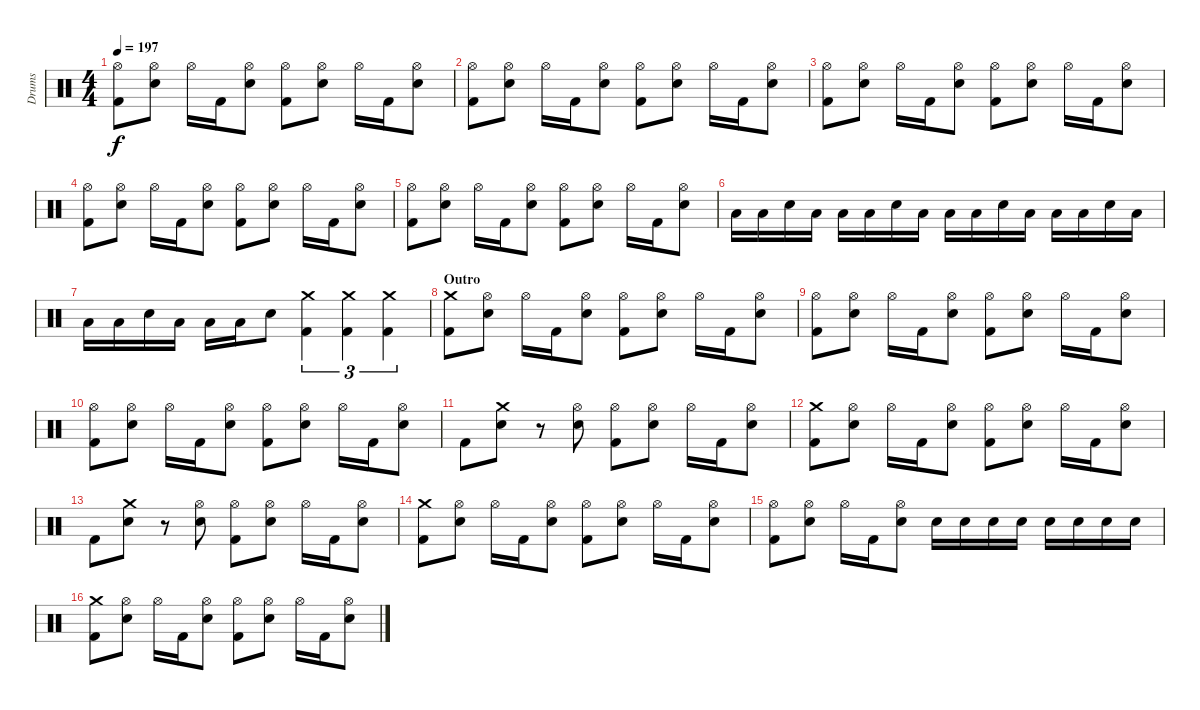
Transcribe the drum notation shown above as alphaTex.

\track ("Drums" "Drums") {instrument percussion}
\staff {score}
\articulation defaults
\ts (4 4)
\tempo 197
\clef neutral
\ks c
("Hi-Hat (open)" "Kick (hit) 2").8{dy f} ("Hi-Hat (open)" "Electric Snare (hit)").8 "Hi-Hat (open)".16 "Kick (hit) 2".16 ("Hi-Hat (open)" "Electric Snare (hit)").8 ("Hi-Hat (open)" "Kick (hit) 2").8 ("Hi-Hat (open)" "Electric Snare (hit)").8 "Hi-Hat (open)".16 "Kick (hit) 2".16 ("Hi-Hat (open)" "Electric Snare (hit)").8 |
("Hi-Hat (open)" "Kick (hit) 2").8 ("Hi-Hat (open)" "Electric Snare (hit)").8 "Hi-Hat (open)".16 "Kick (hit) 2".16 ("Hi-Hat (open)" "Electric Snare (hit)").8 ("Hi-Hat (open)" "Kick (hit) 2").8 ("Hi-Hat (open)" "Electric Snare (hit)").8 "Hi-Hat (open)".16 "Kick (hit) 2".16 ("Hi-Hat (open)" "Electric Snare (hit)").8 |
("Hi-Hat (open)" "Kick (hit) 2").8 ("Hi-Hat (open)" "Electric Snare (hit)").8 "Hi-Hat (open)".16 "Kick (hit) 2".16 ("Hi-Hat (open)" "Electric Snare (hit)").8 ("Hi-Hat (open)" "Kick (hit) 2").8 ("Hi-Hat (open)" "Electric Snare (hit)").8 "Hi-Hat (open)".16 "Kick (hit) 2".16 ("Hi-Hat (open)" "Electric Snare (hit)").8 |
("Hi-Hat (open)" "Kick (hit) 2").8 ("Hi-Hat (open)" "Electric Snare (hit)").8 "Hi-Hat (open)".16 "Kick (hit) 2".16 ("Hi-Hat (open)" "Electric Snare (hit)").8 ("Hi-Hat (open)" "Kick (hit) 2").8 ("Hi-Hat (open)" "Electric Snare (hit)").8 "Hi-Hat (open)".16 "Kick (hit) 2".16 ("Hi-Hat (open)" "Electric Snare (hit)").8 |
("Hi-Hat (open)" "Kick (hit) 2").8 ("Hi-Hat (open)" "Electric Snare (hit)").8 "Hi-Hat (open)".16 "Kick (hit) 2".16 ("Hi-Hat (open)" "Electric Snare (hit)").8 ("Hi-Hat (open)" "Kick (hit) 2").8 ("Hi-Hat (open)" "Electric Snare (hit)").8 "Hi-Hat (open)".16 "Kick (hit) 2".16 ("Hi-Hat (open)" "Electric Snare (hit)").8 |
"Low Tom (hit)".16 "Low Tom (hit)".16 "Electric Snare (hit)".16 "Low Tom (hit)".16 "Low Tom (hit)".16 "Low Tom (hit)".16 "Electric Snare (hit)".16 "Low Tom (hit)".16 "Low Tom (hit)".16 "Low Tom (hit)".16 "Electric Snare (hit)".16 "Low Tom (hit)".16 "Low Tom (hit)".16 "Low Tom (hit)".16 "Electric Snare (hit)".16 "Low Tom (hit)".16 |
"Low Tom (hit)".16 "Low Tom (hit)".16 "Electric Snare (hit)".16 "Low Tom (hit)".16 "Low Tom (hit)".16 "Low Tom (hit)".16 "Electric Snare (hit)".8 ("Crash medium (hit)" "Kick (hit) 2").4{tu (3 2)} ("Crash medium (hit)" "Kick (hit) 2").4{tu (3 2)} ("Crash medium (hit)" "Kick (hit) 2").4{tu (3 2)} |
\section ("" "Outro")
("Crash medium (hit)" "Kick (hit) 2").8 ("Hi-Hat (open)" "Electric Snare (hit)").8 "Hi-Hat (open)".16 "Kick (hit) 2".16 ("Hi-Hat (open)" "Electric Snare (hit)").8 ("Hi-Hat (open)" "Kick (hit) 2").8 ("Hi-Hat (open)" "Electric Snare (hit)").8 "Hi-Hat (open)".16 "Kick (hit) 2".16 ("Hi-Hat (open)" "Electric Snare (hit)").8 |
("Hi-Hat (open)" "Kick (hit) 2").8 ("Hi-Hat (open)" "Electric Snare (hit)").8 "Hi-Hat (open)".16 "Kick (hit) 2".16 ("Hi-Hat (open)" "Electric Snare (hit)").8 ("Hi-Hat (open)" "Kick (hit) 2").8 ("Hi-Hat (open)" "Electric Snare (hit)").8 "Hi-Hat (open)".16 "Kick (hit) 2".16 ("Hi-Hat (open)" "Electric Snare (hit)").8 |
("Hi-Hat (open)" "Kick (hit) 2").8 ("Hi-Hat (open)" "Electric Snare (hit)").8 "Hi-Hat (open)".16 "Kick (hit) 2".16 ("Hi-Hat (open)" "Electric Snare (hit)").8 ("Hi-Hat (open)" "Kick (hit) 2").8 ("Hi-Hat (open)" "Electric Snare (hit)").8 "Hi-Hat (open)".16 "Kick (hit) 2".16 ("Hi-Hat (open)" "Electric Snare (hit)").8 |
"Kick (hit) 2".8 ("Crash medium (hit)" "Electric Snare (hit)").8 r.8 ("Hi-Hat (open)" "Electric Snare (hit)").8 ("Hi-Hat (open)" "Kick (hit) 2").8 ("Hi-Hat (open)" "Electric Snare (hit)").8 "Hi-Hat (open)".16 "Kick (hit) 2".16 ("Hi-Hat (open)" "Electric Snare (hit)").8 |
("Crash medium (hit)" "Kick (hit) 2").8 ("Hi-Hat (open)" "Electric Snare (hit)").8 "Hi-Hat (open)".16 "Kick (hit) 2".16 ("Hi-Hat (open)" "Electric Snare (hit)").8 ("Hi-Hat (open)" "Kick (hit) 2").8 ("Hi-Hat (open)" "Electric Snare (hit)").8 "Hi-Hat (open)".16 "Kick (hit) 2".16 ("Hi-Hat (open)" "Electric Snare (hit)").8 |
"Kick (hit) 2".8 ("Crash medium (hit)" "Electric Snare (hit)").8 r.8 ("Hi-Hat (open)" "Electric Snare (hit)").8 ("Hi-Hat (open)" "Kick (hit) 2").8 ("Hi-Hat (open)" "Electric Snare (hit)").8 "Hi-Hat (open)".16 "Kick (hit) 2".16 ("Hi-Hat (open)" "Electric Snare (hit)").8 |
("Crash medium (hit)" "Kick (hit) 2").8 ("Hi-Hat (open)" "Electric Snare (hit)").8 "Hi-Hat (open)".16 "Kick (hit) 2".16 ("Hi-Hat (open)" "Electric Snare (hit)").8 ("Hi-Hat (open)" "Kick (hit) 2").8 ("Hi-Hat (open)" "Electric Snare (hit)").8 "Hi-Hat (open)".16 "Kick (hit) 2".16 ("Hi-Hat (open)" "Electric Snare (hit)").8 |
("Hi-Hat (open)" "Kick (hit) 2").8 ("Hi-Hat (open)" "Electric Snare (hit)").8 "Hi-Hat (open)".16 "Kick (hit) 2".16 ("Hi-Hat (open)" "Electric Snare (hit)").8 "Electric Snare (hit)".16 "Electric Snare (hit)".16 "Electric Snare (hit)".16 "Electric Snare (hit)".16 "Electric Snare (hit)".16 "Electric Snare (hit)".16 "Electric Snare (hit)".16 "Electric Snare (hit)".16 |
("Crash medium (hit)" "Kick (hit) 2").8 ("Hi-Hat (open)" "Electric Snare (hit)").8 "Hi-Hat (open)".16 "Kick (hit) 2".16 ("Hi-Hat (open)" "Electric Snare (hit)").8 ("Hi-Hat (open)" "Kick (hit) 2").8 ("Hi-Hat (open)" "Electric Snare (hit)").8 "Hi-Hat (open)".16 "Kick (hit) 2".16 ("Hi-Hat (open)" "Electric Snare (hit)").8
